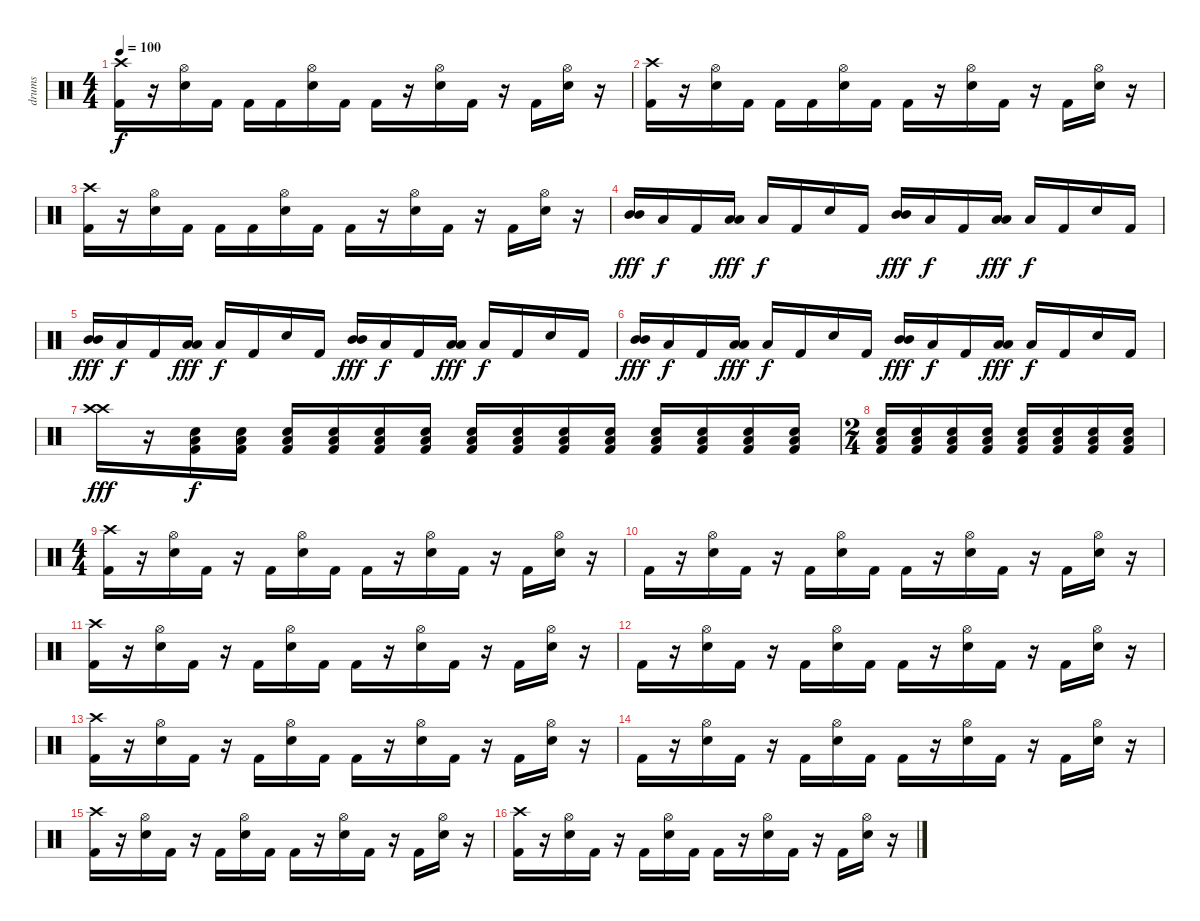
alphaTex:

\track ("drums" "drums") {instrument percussion}
\staff {score}
\articulation defaults
\ts (4 4)
\tempo 100
\clef neutral
\ks c
("Crash high (hit)" "Kick (hit) 2").16{dy f} r.16 ("Hi-Hat (open)" "Electric Snare (hit)").16 "Kick (hit) 2".16 "Kick (hit) 2".16 "Kick (hit) 2".16 ("Hi-Hat (open)" "Electric Snare (hit)").16 "Kick (hit) 2".16 "Kick (hit) 2".16 r.16 ("Hi-Hat (open)" "Electric Snare (hit)").16 "Kick (hit) 2".16 r.16 "Kick (hit) 2".16 ("Hi-Hat (open)" "Electric Snare (hit)").16 r.16 |
("Crash high (hit)" "Kick (hit) 2").16 r.16 ("Hi-Hat (open)" "Electric Snare (hit)").16 "Kick (hit) 2".16 "Kick (hit) 2".16 "Kick (hit) 2".16 ("Hi-Hat (open)" "Electric Snare (hit)").16 "Kick (hit) 2".16 "Kick (hit) 2".16 r.16 ("Hi-Hat (open)" "Electric Snare (hit)").16 "Kick (hit) 2".16 r.16 "Kick (hit) 2".16 ("Hi-Hat (open)" "Electric Snare (hit)").16 r.16 |
("Crash high (hit)" "Kick (hit) 2").16 r.16 ("Hi-Hat (open)" "Electric Snare (hit)").16 "Kick (hit) 2".16 "Kick (hit) 2".16 "Kick (hit) 2".16 ("Hi-Hat (open)" "Electric Snare (hit)").16 "Kick (hit) 2".16 "Kick (hit) 2".16 r.16 ("Hi-Hat (open)" "Electric Snare (hit)").16 "Kick (hit) 2".16 r.16 "Kick (hit) 2".16 ("Hi-Hat (open)" "Electric Snare (hit)").16 r.16 |
("Mid Tom (hit)" "Mid Tom (hit)").16{dy fff} "Low Floor Tom (hit)".16{dy f} "Kick (hit) 2".16 ("Low Tom (hit)" "Low Tom (hit)").16{dy fff} "Low Floor Tom (hit)".16{dy f} "Kick (hit) 2".16 "Electric Snare (hit)".16 "Kick (hit) 2".16 ("Mid Tom (hit)" "Mid Tom (hit)").16{dy fff} "Low Floor Tom (hit)".16{dy f} "Kick (hit) 2".16 ("Low Tom (hit)" "Low Tom (hit)").16{dy fff} "Low Floor Tom (hit)".16{dy f} "Kick (hit) 2".16 "Electric Snare (hit)".16 "Kick (hit) 2".16 |
("Mid Tom (hit)" "Mid Tom (hit)").16{dy fff} "Low Floor Tom (hit)".16{dy f} "Kick (hit) 2".16 ("Low Tom (hit)" "Low Tom (hit)").16{dy fff} "Low Floor Tom (hit)".16{dy f} "Kick (hit) 2".16 "Electric Snare (hit)".16 "Kick (hit) 2".16 ("Mid Tom (hit)" "Mid Tom (hit)").16{dy fff} "Low Floor Tom (hit)".16{dy f} "Kick (hit) 2".16 ("Low Tom (hit)" "Low Tom (hit)").16{dy fff} "Low Floor Tom (hit)".16{dy f} "Kick (hit) 2".16 "Electric Snare (hit)".16 "Kick (hit) 2".16 |
("Mid Tom (hit)" "Mid Tom (hit)").16{dy fff} "Low Floor Tom (hit)".16{dy f} "Kick (hit) 2".16 ("Low Tom (hit)" "Low Tom (hit)").16{dy fff} "Low Floor Tom (hit)".16{dy f} "Kick (hit) 2".16 "Electric Snare (hit)".16 "Kick (hit) 2".16 ("Mid Tom (hit)" "Mid Tom (hit)").16{dy fff} "Low Floor Tom (hit)".16{dy f} "Kick (hit) 2".16 ("Low Tom (hit)" "Low Tom (hit)").16{dy fff} "Low Floor Tom (hit)".16{dy f} "Kick (hit) 2".16 "Electric Snare (hit)".16 "Kick (hit) 2".16 |
("Crash high (hit)" "Crash high (hit)").16{dy fff} r.16{volume 0} ("Electric Snare (hit)" "Low Floor Tom (hit)" "Kick (hit) 2").16{dy f volume 14} ("Electric Snare (hit)" "Low Floor Tom (hit)" "Kick (hit) 2").16 ("Electric Snare (hit)" "Low Floor Tom (hit)" "Kick (hit) 2").16 ("Electric Snare (hit)" "Low Floor Tom (hit)" "Kick (hit) 2").16 ("Electric Snare (hit)" "Low Floor Tom (hit)" "Kick (hit) 2").16 ("Electric Snare (hit)" "Low Floor Tom (hit)" "Kick (hit) 2").16 ("Electric Snare (hit)" "Low Floor Tom (hit)" "Kick (hit) 2").16 ("Electric Snare (hit)" "Low Floor Tom (hit)" "Kick (hit) 2").16 ("Electric Snare (hit)" "Low Floor Tom (hit)" "Kick (hit) 2").16 ("Electric Snare (hit)" "Low Floor Tom (hit)" "Kick (hit) 2").16 ("Electric Snare (hit)" "Low Floor Tom (hit)" "Kick (hit) 2").16 ("Electric Snare (hit)" "Low Floor Tom (hit)" "Kick (hit) 2").16 ("Electric Snare (hit)" "Low Floor Tom (hit)" "Kick (hit) 2").16 ("Electric Snare (hit)" "Low Floor Tom (hit)" "Kick (hit) 2").16 |
\ts (2 4)
("Electric Snare (hit)" "Low Floor Tom (hit)" "Kick (hit) 2").16 ("Electric Snare (hit)" "Low Floor Tom (hit)" "Kick (hit) 2").16 ("Electric Snare (hit)" "Low Floor Tom (hit)" "Kick (hit) 2").16 ("Electric Snare (hit)" "Low Floor Tom (hit)" "Kick (hit) 2").16 ("Electric Snare (hit)" "Low Floor Tom (hit)" "Kick (hit) 2").16 ("Electric Snare (hit)" "Low Floor Tom (hit)" "Kick (hit) 2").16 ("Electric Snare (hit)" "Low Floor Tom (hit)" "Kick (hit) 2").16 ("Electric Snare (hit)" "Low Floor Tom (hit)" "Kick (hit) 2").16 |
\ts (4 4)
("Crash high (hit)" "Kick (hit) 2").16 r.16 ("Hi-Hat (open)" "Electric Snare (hit)").16 "Kick (hit) 2".16 r.16 "Kick (hit) 2".16 ("Hi-Hat (open)" "Electric Snare (hit)").16 "Kick (hit) 2".16 "Kick (hit) 2".16 r.16 ("Hi-Hat (open)" "Electric Snare (hit)").16 "Kick (hit) 2".16 r.16 "Kick (hit) 2".16 ("Hi-Hat (open)" "Electric Snare (hit)").16 r.16 |
"Kick (hit) 2".16 r.16 ("Hi-Hat (open)" "Electric Snare (hit)").16 "Kick (hit) 2".16 r.16 "Kick (hit) 2".16 ("Hi-Hat (open)" "Electric Snare (hit)").16 "Kick (hit) 2".16 "Kick (hit) 2".16 r.16 ("Hi-Hat (open)" "Electric Snare (hit)").16 "Kick (hit) 2".16 r.16 "Kick (hit) 2".16 ("Hi-Hat (open)" "Electric Snare (hit)").16 r.16 |
("Crash high (hit)" "Kick (hit) 2").16 r.16 ("Hi-Hat (open)" "Electric Snare (hit)").16 "Kick (hit) 2".16 r.16 "Kick (hit) 2".16 ("Hi-Hat (open)" "Electric Snare (hit)").16 "Kick (hit) 2".16 "Kick (hit) 2".16 r.16 ("Hi-Hat (open)" "Electric Snare (hit)").16 "Kick (hit) 2".16 r.16 "Kick (hit) 2".16 ("Hi-Hat (open)" "Electric Snare (hit)").16 r.16 |
"Kick (hit) 2".16 r.16 ("Hi-Hat (open)" "Electric Snare (hit)").16 "Kick (hit) 2".16 r.16 "Kick (hit) 2".16 ("Hi-Hat (open)" "Electric Snare (hit)").16 "Kick (hit) 2".16 "Kick (hit) 2".16 r.16 ("Hi-Hat (open)" "Electric Snare (hit)").16 "Kick (hit) 2".16 r.16 "Kick (hit) 2".16 ("Hi-Hat (open)" "Electric Snare (hit)").16 r.16 |
("Crash high (hit)" "Kick (hit) 2").16 r.16 ("Hi-Hat (open)" "Electric Snare (hit)").16 "Kick (hit) 2".16 r.16 "Kick (hit) 2".16 ("Hi-Hat (open)" "Electric Snare (hit)").16 "Kick (hit) 2".16 "Kick (hit) 2".16 r.16 ("Hi-Hat (open)" "Electric Snare (hit)").16 "Kick (hit) 2".16 r.16 "Kick (hit) 2".16 ("Hi-Hat (open)" "Electric Snare (hit)").16 r.16 |
"Kick (hit) 2".16 r.16 ("Hi-Hat (open)" "Electric Snare (hit)").16 "Kick (hit) 2".16 r.16 "Kick (hit) 2".16 ("Hi-Hat (open)" "Electric Snare (hit)").16 "Kick (hit) 2".16 "Kick (hit) 2".16 r.16 ("Hi-Hat (open)" "Electric Snare (hit)").16 "Kick (hit) 2".16 r.16 "Kick (hit) 2".16 ("Hi-Hat (open)" "Electric Snare (hit)").16 r.16 |
("Crash high (hit)" "Kick (hit) 2").16 r.16 ("Hi-Hat (open)" "Electric Snare (hit)").16 "Kick (hit) 2".16 r.16 "Kick (hit) 2".16 ("Hi-Hat (open)" "Electric Snare (hit)").16 "Kick (hit) 2".16 "Kick (hit) 2".16 r.16 ("Hi-Hat (open)" "Electric Snare (hit)").16 "Kick (hit) 2".16 r.16 "Kick (hit) 2".16 ("Hi-Hat (open)" "Electric Snare (hit)").16 r.16 |
("Crash high (hit)" "Kick (hit) 2").16 r.16 ("Hi-Hat (open)" "Electric Snare (hit)").16 "Kick (hit) 2".16 r.16 "Kick (hit) 2".16 ("Hi-Hat (open)" "Electric Snare (hit)").16 "Kick (hit) 2".16 "Kick (hit) 2".16 r.16 ("Hi-Hat (open)" "Electric Snare (hit)").16 "Kick (hit) 2".16 r.16 "Kick (hit) 2".16 ("Hi-Hat (open)" "Electric Snare (hit)").16 r.16
